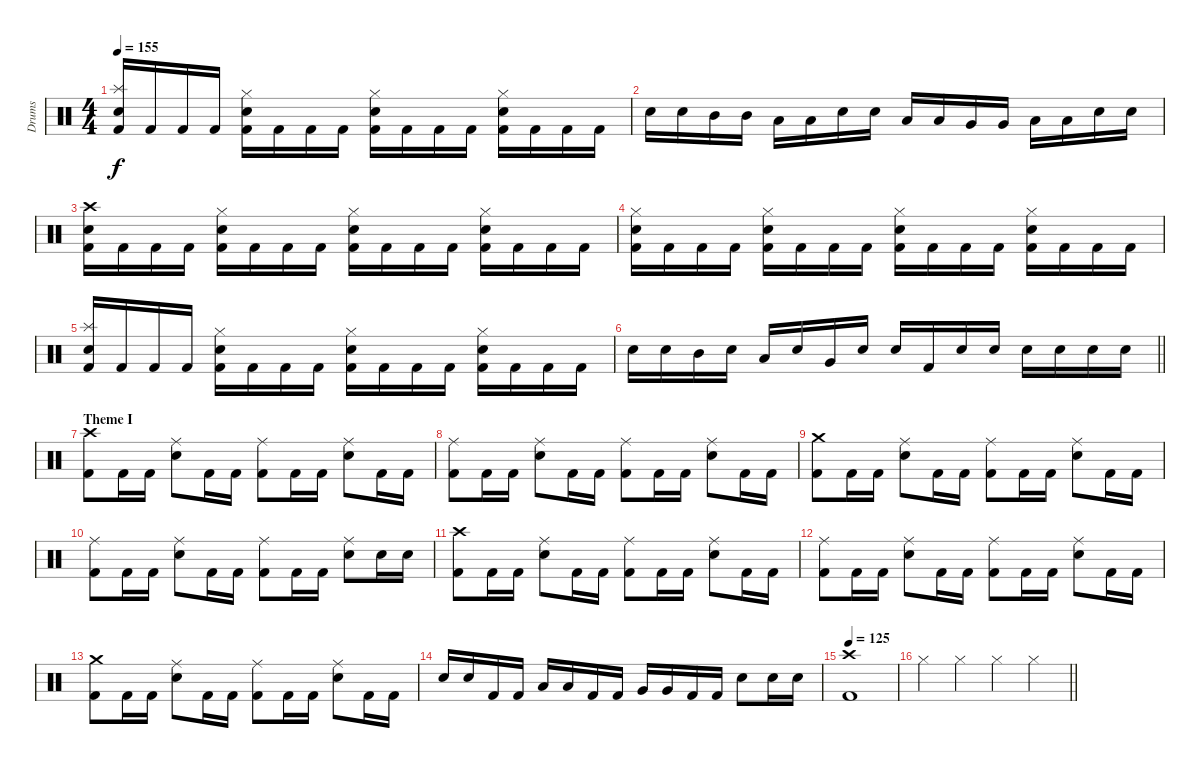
\track ("Drums" "Drums") {instrument percussion}
\staff {score}
\articulation defaults
\ts (4 4)
\tempo 155
\clef neutral
\ks c
("Kick (hit) 2" "Splash (hit)" "Electric Snare (hit)").16{dy f} "Kick (hit) 2".16 "Kick (hit) 2".16 "Kick (hit) 2".16 ("Kick (hit) 2" "Hi-Hat (closed)" "Electric Snare (hit)").16 "Kick (hit) 2".16 "Kick (hit) 2".16 "Kick (hit) 2".16 ("Kick (hit) 2" "Hi-Hat (closed)" "Electric Snare (hit)").16 "Kick (hit) 2".16 "Kick (hit) 2".16 "Kick (hit) 2".16 ("Kick (hit) 2" "Hi-Hat (closed)" "Electric Snare (hit)").16 "Kick (hit) 2".16 "Kick (hit) 2".16 "Kick (hit) 2".16 |
"Electric Snare (hit)".16 "Electric Snare (hit)".16 "Mid Tom (hit)".16 "Mid Tom (hit)".16 "Low Tom (hit)".16 "Low Tom (hit)".16 "Electric Snare (hit)".16 "Electric Snare (hit)".16 "Low Tom (hit)".16 "Low Tom (hit)".16 "Very Low Tom (hit)".16 "Very Low Tom (hit)".16 "Low Floor Tom (hit)".16 "Low Floor Tom (hit)".16 "Electric Snare (hit)".16 "Electric Snare (hit)".16 |
("Kick (hit) 2" "Crash high (hit)" "Electric Snare (hit)").16 "Kick (hit) 2".16 "Kick (hit) 2".16 "Kick (hit) 2".16 ("Kick (hit) 2" "Hi-Hat (closed)" "Electric Snare (hit)").16 "Kick (hit) 2".16 "Kick (hit) 2".16 "Kick (hit) 2".16 ("Kick (hit) 2" "Hi-Hat (closed)" "Electric Snare (hit)").16 "Kick (hit) 2".16 "Kick (hit) 2".16 "Kick (hit) 2".16 ("Kick (hit) 2" "Hi-Hat (closed)" "Electric Snare (hit)").16 "Kick (hit) 2".16 "Kick (hit) 2".16 "Kick (hit) 2".16 |
("Kick (hit) 2" "Hi-Hat (closed)" "Electric Snare (hit)").16 "Kick (hit) 2".16 "Kick (hit) 2".16 "Kick (hit) 2".16 ("Kick (hit) 2" "Hi-Hat (closed)" "Electric Snare (hit)").16 "Kick (hit) 2".16 "Kick (hit) 2".16 "Kick (hit) 2".16 ("Kick (hit) 2" "Hi-Hat (closed)" "Electric Snare (hit)").16 "Kick (hit) 2".16 "Kick (hit) 2".16 "Kick (hit) 2".16 ("Kick (hit) 2" "Hi-Hat (closed)" "Electric Snare (hit)").16 "Kick (hit) 2".16 "Kick (hit) 2".16 "Kick (hit) 2".16 |
("Kick (hit) 2" "Splash (hit)" "Electric Snare (hit)").16 "Kick (hit) 2".16 "Kick (hit) 2".16 "Kick (hit) 2".16 ("Kick (hit) 2" "Hi-Hat (closed)" "Electric Snare (hit)").16 "Kick (hit) 2".16 "Kick (hit) 2".16 "Kick (hit) 2".16 ("Kick (hit) 2" "Hi-Hat (closed)" "Electric Snare (hit)").16 "Kick (hit) 2".16 "Kick (hit) 2".16 "Kick (hit) 2".16 ("Kick (hit) 2" "Hi-Hat (closed)" "Electric Snare (hit)").16 "Kick (hit) 2".16 "Kick (hit) 2".16 "Kick (hit) 2".16 |
\barLineRight lightlight "Electric Snare (hit)".16 "Electric Snare (hit)".16 "Mid Tom (hit)".16 "Electric Snare (hit)".16 "Low Tom (hit)".16 "Electric Snare (hit)".16 "Very Low Tom (hit)".16 "Electric Snare (hit)".16 "Electric Snare (hit)".16 "Kick (hit) 2".16 "Electric Snare (hit)".16 "Electric Snare (hit)".16 "Electric Snare (hit)".16 "Electric Snare (hit)".16 "Electric Snare (hit)".16 "Electric Snare (hit)".16
|
\section ("" "Theme I")
("Kick (hit) 2" "Crash high (hit)").8 "Kick (hit) 2".16 "Kick (hit) 2".16 ("Ride (middle)" "Electric Snare (hit)").8 "Kick (hit) 2".16 "Kick (hit) 2".16 ("Kick (hit) 2" "Ride (middle)").8 "Kick (hit) 2".16 "Kick (hit) 2".16 ("Ride (middle)" "Electric Snare (hit)").8 "Kick (hit) 2".16 "Kick (hit) 2".16 |
("Kick (hit) 2" "Ride (middle)").8 "Kick (hit) 2".16 "Kick (hit) 2".16 ("Ride (middle)" "Electric Snare (hit)").8 "Kick (hit) 2".16 "Kick (hit) 2".16 ("Kick (hit) 2" "Ride (middle)").8 "Kick (hit) 2".16 "Kick (hit) 2".16 ("Ride (middle)" "Electric Snare (hit)").8 "Kick (hit) 2".16 "Kick (hit) 2".16 |
("Kick (hit) 2" "Crash medium (hit)").8 "Kick (hit) 2".16 "Kick (hit) 2".16 ("Ride (middle)" "Electric Snare (hit)").8 "Kick (hit) 2".16 "Kick (hit) 2".16 ("Kick (hit) 2" "Ride (middle)").8 "Kick (hit) 2".16 "Kick (hit) 2".16 ("Ride (middle)" "Electric Snare (hit)").8 "Kick (hit) 2".16 "Kick (hit) 2".16 |
("Kick (hit) 2" "Ride (middle)").8 "Kick (hit) 2".16 "Kick (hit) 2".16 ("Ride (middle)" "Electric Snare (hit)").8 "Kick (hit) 2".16 "Kick (hit) 2".16 ("Kick (hit) 2" "Ride (middle)").8 "Kick (hit) 2".16 "Kick (hit) 2".16 ("Ride (middle)" "Electric Snare (hit)").8 "Electric Snare (hit)".16 "Electric Snare (hit)".16 |
("Kick (hit) 2" "Crash high (hit)").8 "Kick (hit) 2".16 "Kick (hit) 2".16 ("Ride (middle)" "Electric Snare (hit)").8 "Kick (hit) 2".16 "Kick (hit) 2".16 ("Kick (hit) 2" "Ride (middle)").8 "Kick (hit) 2".16 "Kick (hit) 2".16 ("Ride (middle)" "Electric Snare (hit)").8 "Kick (hit) 2".16 "Kick (hit) 2".16 |
("Kick (hit) 2" "Ride (middle)").8 "Kick (hit) 2".16 "Kick (hit) 2".16 ("Ride (middle)" "Electric Snare (hit)").8 "Kick (hit) 2".16 "Kick (hit) 2".16 ("Kick (hit) 2" "Ride (middle)").8 "Kick (hit) 2".16 "Kick (hit) 2".16 ("Ride (middle)" "Electric Snare (hit)").8 "Kick (hit) 2".16 "Kick (hit) 2".16 |
("Kick (hit) 2" "Crash medium (hit)").8 "Kick (hit) 2".16 "Kick (hit) 2".16 ("Ride (middle)" "Electric Snare (hit)").8 "Kick (hit) 2".16 "Kick (hit) 2".16 ("Kick (hit) 2" "Ride (middle)").8 "Kick (hit) 2".16 "Kick (hit) 2".16 ("Ride (middle)" "Electric Snare (hit)").8 "Kick (hit) 2".16 "Kick (hit) 2".16 |
"Electric Snare (hit)".16 "Electric Snare (hit)".16 "Kick (hit) 2".16 "Kick (hit) 2".16 "Low Tom (hit)".16 "Low Tom (hit)".16 "Kick (hit) 2".16 "Kick (hit) 2".16 "Very Low Tom (hit)".16 "Very Low Tom (hit)".16 "Kick (hit) 2".16 "Kick (hit) 2".16 "Electric Snare (hit)".8 "Electric Snare (hit)".16 "Electric Snare (hit)".16 |
\tempo 125
("Kick (hit) 2" "Crash high (hit)").1 |
\barLineRight lightlight "Hi-Hat (closed)".4 "Hi-Hat (closed)".4 "Hi-Hat (closed)".4 "Hi-Hat (closed)".4
